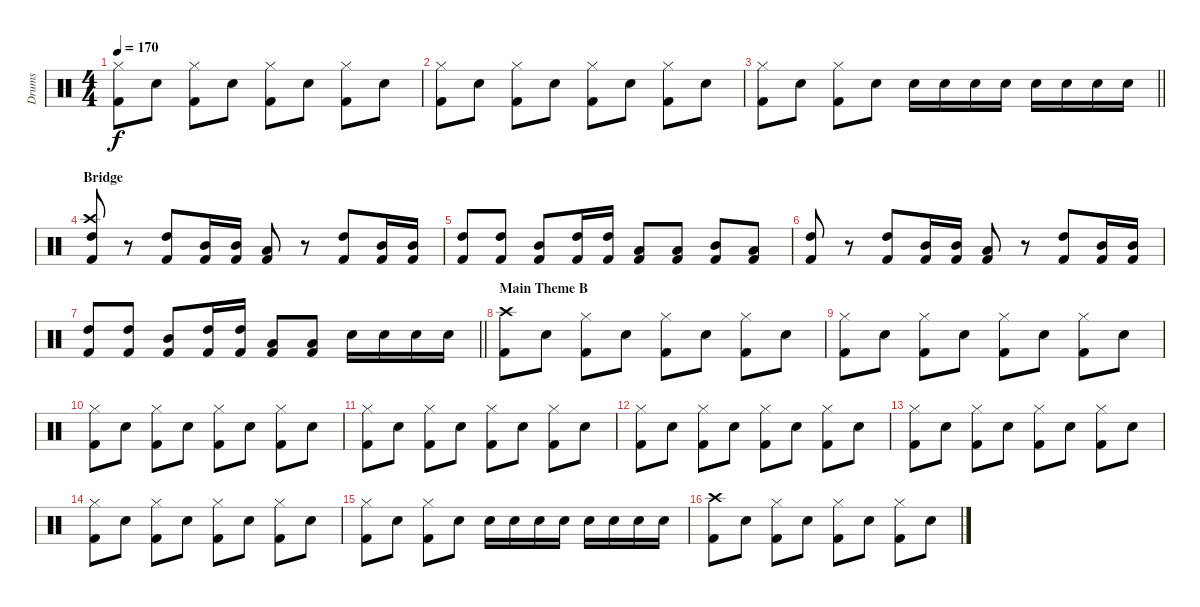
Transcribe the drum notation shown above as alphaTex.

\track ("Drums" "Drums") {instrument percussion}
\staff {score}
\articulation defaults
\ts (4 4)
\tempo 170
\clef neutral
\ks c
("Hi-Hat (closed)" "Kick (hit) 2").8{dy f} "Electric Snare (hit)".8 ("Hi-Hat (closed)" "Kick (hit) 2").8 "Electric Snare (hit)".8 ("Hi-Hat (closed)" "Kick (hit) 2").8 "Electric Snare (hit)".8 ("Hi-Hat (closed)" "Kick (hit) 2").8 "Electric Snare (hit)".8 |
("Hi-Hat (closed)" "Kick (hit) 2").8 "Electric Snare (hit)".8 ("Hi-Hat (closed)" "Kick (hit) 2").8 "Electric Snare (hit)".8 ("Hi-Hat (closed)" "Kick (hit) 2").8 "Electric Snare (hit)".8 ("Hi-Hat (closed)" "Kick (hit) 2").8 "Electric Snare (hit)".8 |
\barLineRight lightlight
("Hi-Hat (closed)" "Kick (hit) 2").8 "Electric Snare (hit)".8 ("Hi-Hat (closed)" "Kick (hit) 2").8 "Electric Snare (hit)".8 "Electric Snare (hit)".16 "Electric Snare (hit)".16 "Electric Snare (hit)".16 "Electric Snare (hit)".16 "Electric Snare (hit)".16 "Electric Snare (hit)".16 "Electric Snare (hit)".16 "Electric Snare (hit)".16 |
\section ("" "Bridge")
("Crash high (hit)" "High Tom (hit)" "Kick (hit) 2").8 r.8 ("High Tom (hit)" "Kick (hit) 2").8 ("Mid Tom (hit)" "Kick (hit) 2").16 ("Mid Tom (hit)" "Kick (hit) 2").16 ("Low Tom (hit)" "Kick (hit) 2").8 r.8 ("High Tom (hit)" "Kick (hit) 2").8 ("Mid Tom (hit)" "Kick (hit) 2").16 ("Mid Tom (hit)" "Kick (hit) 2").16 |
("High Tom (hit)" "Kick (hit) 2").8 ("High Tom (hit)" "Kick (hit) 2").8 ("Mid Tom (hit)" "Kick (hit) 2").8 ("High Tom (hit)" "Kick (hit) 2").16 ("High Tom (hit)" "Kick (hit) 2").16 ("Low Tom (hit)" "Kick (hit) 2").8 ("Low Tom (hit)" "Kick (hit) 2").8 ("Mid Tom (hit)" "Kick (hit) 2").8 ("Low Tom (hit)" "Kick (hit) 2").8 |
("High Tom (hit)" "Kick (hit) 2").8 r.8 ("High Tom (hit)" "Kick (hit) 2").8 ("Mid Tom (hit)" "Kick (hit) 2").16 ("Mid Tom (hit)" "Kick (hit) 2").16 ("Low Tom (hit)" "Kick (hit) 2").8 r.8 ("High Tom (hit)" "Kick (hit) 2").8 ("Mid Tom (hit)" "Kick (hit) 2").16 ("Mid Tom (hit)" "Kick (hit) 2").16 |
\barLineRight lightlight
("High Tom (hit)" "Kick (hit) 2").8 ("High Tom (hit)" "Kick (hit) 2").8 ("Mid Tom (hit)" "Kick (hit) 2").8 ("High Tom (hit)" "Kick (hit) 2").16 ("High Tom (hit)" "Kick (hit) 2").16 ("Low Tom (hit)" "Kick (hit) 2").8 ("Low Tom (hit)" "Kick (hit) 2").8 "Electric Snare (hit)".16 "Electric Snare (hit)".16 "Electric Snare (hit)".16 "Electric Snare (hit)".16 |
\section ("" "Main Theme B")
("Crash high (hit)" "Kick (hit) 2").8 "Electric Snare (hit)".8 ("Hi-Hat (closed)" "Kick (hit) 2").8 "Electric Snare (hit)".8 ("Hi-Hat (closed)" "Kick (hit) 2").8 "Electric Snare (hit)".8 ("Hi-Hat (closed)" "Kick (hit) 2").8 "Electric Snare (hit)".8 |
("Hi-Hat (closed)" "Kick (hit) 2").8 "Electric Snare (hit)".8 ("Hi-Hat (closed)" "Kick (hit) 2").8 "Electric Snare (hit)".8 ("Hi-Hat (closed)" "Kick (hit) 2").8 "Electric Snare (hit)".8 ("Hi-Hat (closed)" "Kick (hit) 2").8 "Electric Snare (hit)".8 |
("Hi-Hat (closed)" "Kick (hit) 2").8 "Electric Snare (hit)".8 ("Hi-Hat (closed)" "Kick (hit) 2").8 "Electric Snare (hit)".8 ("Hi-Hat (closed)" "Kick (hit) 2").8 "Electric Snare (hit)".8 ("Hi-Hat (closed)" "Kick (hit) 2").8 "Electric Snare (hit)".8 |
("Hi-Hat (closed)" "Kick (hit) 2").8 "Electric Snare (hit)".8 ("Hi-Hat (closed)" "Kick (hit) 2").8 "Electric Snare (hit)".8 ("Hi-Hat (closed)" "Kick (hit) 2").8 "Electric Snare (hit)".8 ("Hi-Hat (closed)" "Kick (hit) 2").8 "Electric Snare (hit)".8 |
("Hi-Hat (closed)" "Kick (hit) 2").8 "Electric Snare (hit)".8 ("Hi-Hat (closed)" "Kick (hit) 2").8 "Electric Snare (hit)".8 ("Hi-Hat (closed)" "Kick (hit) 2").8 "Electric Snare (hit)".8 ("Hi-Hat (closed)" "Kick (hit) 2").8 "Electric Snare (hit)".8 |
("Hi-Hat (closed)" "Kick (hit) 2").8 "Electric Snare (hit)".8 ("Hi-Hat (closed)" "Kick (hit) 2").8 "Electric Snare (hit)".8 ("Hi-Hat (closed)" "Kick (hit) 2").8 "Electric Snare (hit)".8 ("Hi-Hat (closed)" "Kick (hit) 2").8 "Electric Snare (hit)".8 |
("Hi-Hat (closed)" "Kick (hit) 2").8 "Electric Snare (hit)".8 ("Hi-Hat (closed)" "Kick (hit) 2").8 "Electric Snare (hit)".8 ("Hi-Hat (closed)" "Kick (hit) 2").8 "Electric Snare (hit)".8 ("Hi-Hat (closed)" "Kick (hit) 2").8 "Electric Snare (hit)".8 |
("Hi-Hat (closed)" "Kick (hit) 2").8 "Electric Snare (hit)".8 ("Hi-Hat (closed)" "Kick (hit) 2").8 "Electric Snare (hit)".8 "Electric Snare (hit)".16 "Electric Snare (hit)".16 "Electric Snare (hit)".16 "Electric Snare (hit)".16 "Electric Snare (hit)".16 "Electric Snare (hit)".16 "Electric Snare (hit)".16 "Electric Snare (hit)".16 |
("Crash high (hit)" "Kick (hit) 2").8 "Electric Snare (hit)".8 ("Hi-Hat (closed)" "Kick (hit) 2").8 "Electric Snare (hit)".8 ("Hi-Hat (closed)" "Kick (hit) 2").8 "Electric Snare (hit)".8 ("Hi-Hat (closed)" "Kick (hit) 2").8 "Electric Snare (hit)".8
